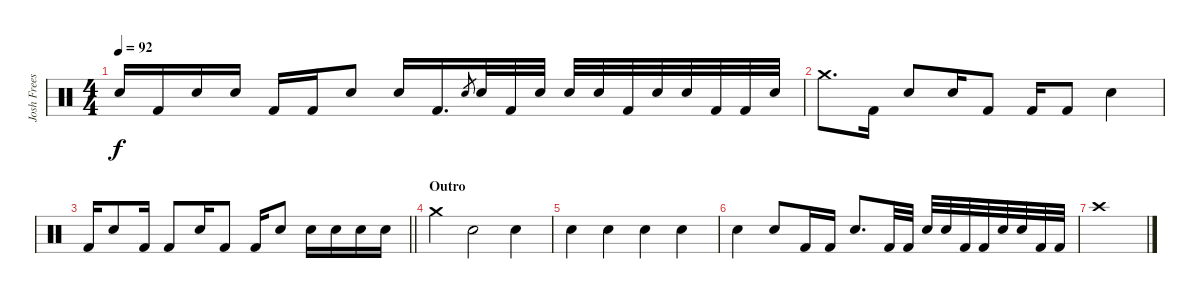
\track ("Josh Freese (Studio Drummer)" "Josh Frees") {instrument percussion}
\staff {score}
\articulation defaults
\ts (4 4)
\tempo 92
\clef neutral
\ks c "Electric Snare (hit)".16{dy f} "Kick (hit) 2".16 "Electric Snare (hit)".16 "Electric Snare (hit)".16 "Kick (hit) 2".16 "Kick (hit) 2".16 "Electric Snare (hit)".8 "Electric Snare (hit)".16 "Kick (hit) 2".16{d} "Electric Snare (hit)".8{gr} "Electric Snare (hit)".32 "Kick (hit) 2".32 "Electric Snare (hit)".32 "Electric Snare (hit)".32 "Electric Snare (hit)".32 "Kick (hit) 2".32 "Electric Snare (hit)".32 "Electric Snare (hit)".32 "Kick (hit) 2".32 "Kick (hit) 2".32 "Electric Snare (hit)".32
|
"Crash medium (hit)".8{d} "Kick (hit) 2".16 "Electric Snare (hit)".8 "Electric Snare (hit)".16 "Kick (hit) 2".8 "Kick (hit) 2".16 "Kick (hit) 2".8 "Electric Snare (hit)".4 |
\barLineRight lightlight "Kick (hit) 2".16 "Electric Snare (hit)".8 "Kick (hit) 2".16 "Kick (hit) 2".8 "Electric Snare (hit)".16 "Kick (hit) 2".8 "Kick (hit) 2".16 "Electric Snare (hit)".8 "Electric Snare (hit)".16 "Electric Snare (hit)".16 "Electric Snare (hit)".16 "Electric Snare (hit)".16
|
\section ("" "Outro")
"Crash medium (hit)".4 "Electric Snare (hit)".2 "Electric Snare (hit)".4 |
"Electric Snare (hit)".4 "Electric Snare (hit)".4 "Electric Snare (hit)".4 "Electric Snare (hit)".4 |
"Electric Snare (hit)".4 "Electric Snare (hit)".8 "Kick (hit) 2".16 "Kick (hit) 2".16 "Electric Snare (hit)".8{d} "Kick (hit) 2".32 "Kick (hit) 2".32 "Electric Snare (hit)".32 "Electric Snare (hit)".32 "Kick (hit) 2".32 "Kick (hit) 2".32 "Electric Snare (hit)".32 "Electric Snare (hit)".32 "Kick (hit) 2".32 "Kick (hit) 2".32 |
"Crash high (hit)".1
